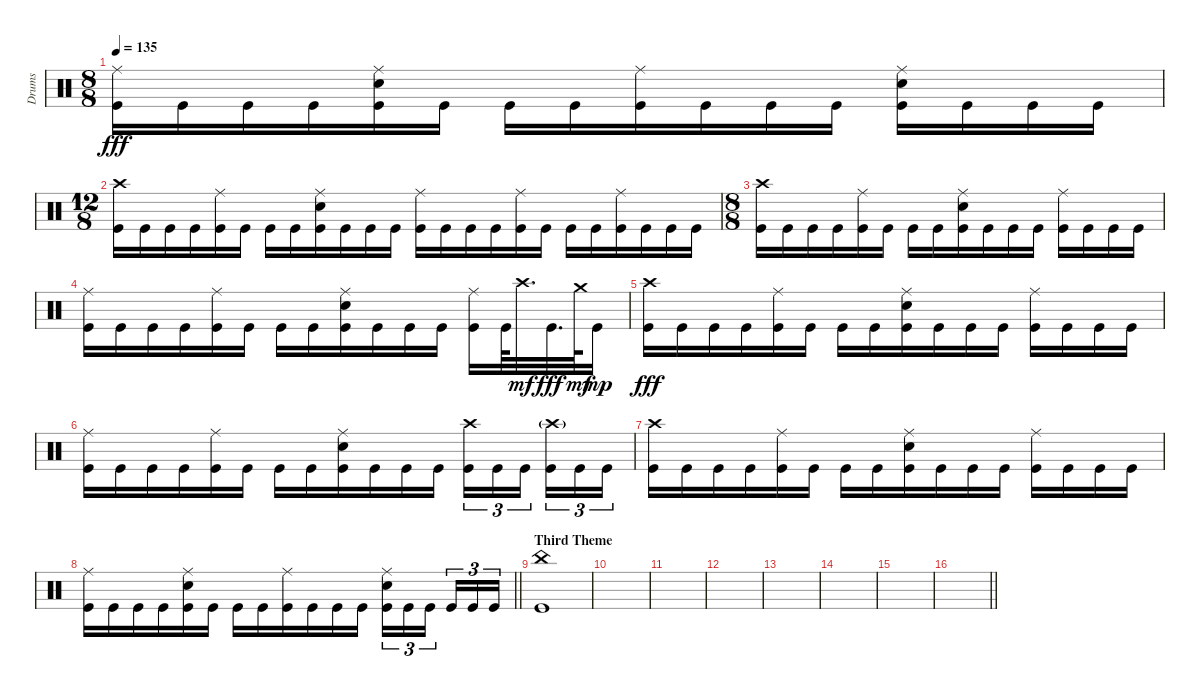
\track ("Drums" "Drums") {instrument percussion}
\staff
\articulation defaults
\ts (8 8)
\tempo 135
\clef neutral
\ks c
("Ride (middle)" "Kick (hit)").16{dy fff} "Kick (hit)".16 "Kick (hit)".16 "Kick (hit)".16 ("Ride (middle)" "Snare (hit) 2" "Kick (hit)").16 "Kick (hit)".16 "Kick (hit)".16 "Kick (hit)".16 ("Ride (middle)" "Kick (hit)").16 "Kick (hit)".16 "Kick (hit)".16 "Kick (hit)".16 ("Ride (middle)" "Snare (hit) 2" "Kick (hit)").16 "Kick (hit)".16 "Kick (hit)".16 "Kick (hit)".16 |
\ts (12 8)
("Crash high (hit)" "Kick (hit)").16 "Kick (hit)".16 "Kick (hit)".16 "Kick (hit)".16 ("Ride (middle)" "Kick (hit)").16 "Kick (hit)".16 "Kick (hit)".16 "Kick (hit)".16 ("Ride (middle)" "Snare (hit) 2" "Kick (hit)").16 "Kick (hit)".16 "Kick (hit)".16 "Kick (hit)".16 ("Ride (middle)" "Kick (hit)").16 "Kick (hit)".16 "Kick (hit)".16 "Kick (hit)".16 ("Ride (middle)" "Kick (hit)").16 "Kick (hit)".16 "Kick (hit)".16 "Kick (hit)".16 ("Ride (middle)" "Kick (hit)").16 "Kick (hit)".16 "Kick (hit)".16 "Kick (hit)".16 |
\ts (8 8)
("Crash high (hit)" "Kick (hit)").16 "Kick (hit)".16 "Kick (hit)".16 "Kick (hit)".16 ("Ride (middle)" "Kick (hit)").16 "Kick (hit)".16 "Kick (hit)".16 "Kick (hit)".16 ("Ride (middle)" "Snare (hit) 2" "Kick (hit)").16 "Kick (hit)".16 "Kick (hit)".16 "Kick (hit)".16 ("Ride (middle)" "Kick (hit)").16 "Kick (hit)".16 "Kick (hit)".16 "Kick (hit)".16 |
("Ride (middle)" "Kick (hit)").16 "Kick (hit)".16 "Kick (hit)".16 "Kick (hit)".16 ("Ride (middle)" "Kick (hit)").16 "Kick (hit)".16 "Kick (hit)".16 "Kick (hit)".16 ("Ride (middle)" "Snare (hit) 2" "Kick (hit)").16 "Kick (hit)".16 "Kick (hit)".16 "Kick (hit)".16 ("Ride (middle)" "Kick (hit)").16 "Kick (hit)".64 "Crash high (hit)".32{d dy mf} "Kick (hit)".32{d dy fff} "Crash medium (hit)".64{dy mf} "Kick (hit)".16{dy mp} |
("Crash high (hit)" "Kick (hit)").16{dy fff} "Kick (hit)".16 "Kick (hit)".16 "Kick (hit)".16 ("Ride (middle)" "Kick (hit)").16 "Kick (hit)".16 "Kick (hit)".16 "Kick (hit)".16 ("Ride (middle)" "Snare (hit) 2" "Kick (hit)").16 "Kick (hit)".16 "Kick (hit)".16 "Kick (hit)".16 ("Ride (middle)" "Kick (hit)").16 "Kick (hit)".16 "Kick (hit)".16 "Kick (hit)".16 |
("Ride (middle)" "Kick (hit)").16 "Kick (hit)".16 "Kick (hit)".16 "Kick (hit)".16 ("Ride (middle)" "Kick (hit)").16 "Kick (hit)".16 "Kick (hit)".16 "Kick (hit)".16 ("Ride (middle)" "Snare (hit) 2" "Kick (hit)").16 "Kick (hit)".16 "Kick (hit)".16 "Kick (hit)".16 ("Crash high (hit)" "Kick (hit)").16{tu (3 2)} "Kick (hit)".16{tu (3 2)} "Kick (hit)".16{tu (3 2)} ("Crash high (hit)"{g} "Kick (hit)").16{tu (3 2)} "Kick (hit)".16{tu (3 2)} "Kick (hit)".16{tu (3 2)} |
("Crash high (hit)" "Kick (hit)").16 "Kick (hit)".16 "Kick (hit)".16 "Kick (hit)".16 ("Ride (middle)" "Kick (hit)").16 "Kick (hit)".16 "Kick (hit)".16 "Kick (hit)".16 ("Ride (middle)" "Snare (hit) 2" "Kick (hit)").16 "Kick (hit)".16 "Kick (hit)".16 "Kick (hit)".16 ("Ride (middle)" "Kick (hit)").16 "Kick (hit)".16 "Kick (hit)".16 "Kick (hit)".16 |
\barLineRight lightlight
("Ride (middle)" "Kick (hit)").16 "Kick (hit)".16 "Kick (hit)".16 "Kick (hit)".16 ("Ride (middle)" "Snare (hit) 2" "Kick (hit)").16 "Kick (hit)".16 "Kick (hit)".16 "Kick (hit)".16 ("Ride (middle)" "Kick (hit)").16 "Kick (hit)".16 "Kick (hit)".16 "Kick (hit)".16 ("Ride (middle)" "Snare (hit) 2" "Kick (hit)").16{tu (3 2)} "Kick (hit)".16{tu (3 2)} "Kick (hit)".16{tu (3 2)} "Kick (hit)".16{tu (3 2)} "Kick (hit)".16{tu (3 2)} "Kick (hit)".16{tu (3 2)} |
\section ("" "Third Theme")
("China (hit)" "Kick (hit)").1 |
|
|
|
|
|
|
\barLineRight lightlight
